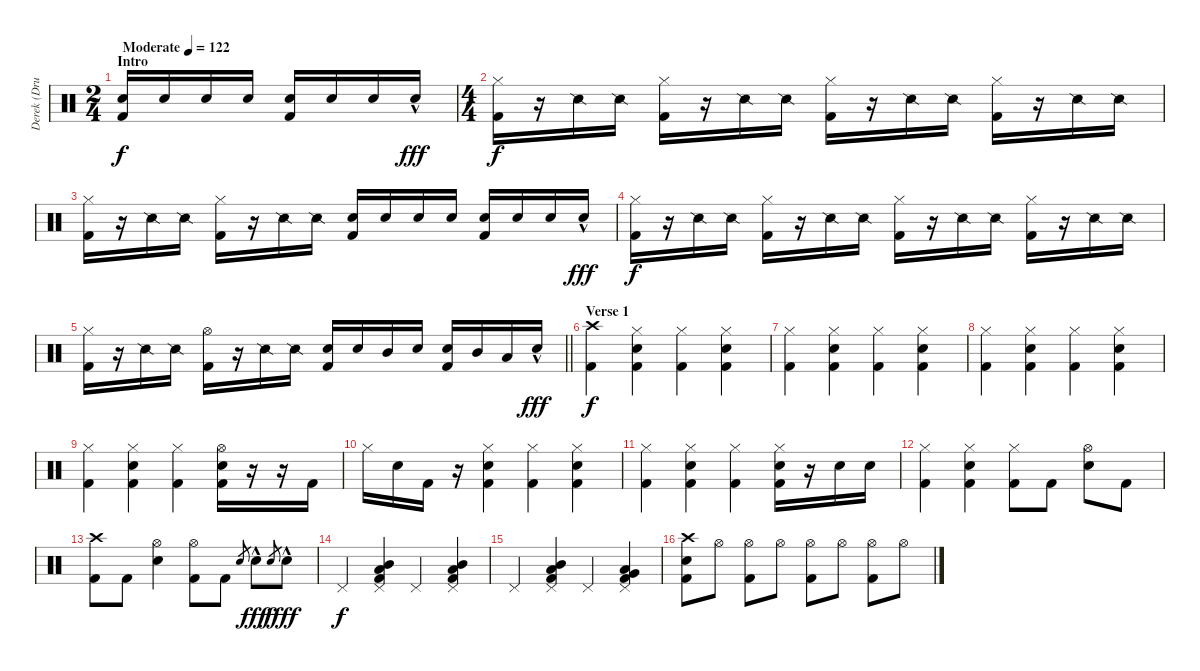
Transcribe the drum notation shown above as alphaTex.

\track ("Derek (Drums)" "Derek (Dru") {instrument percussion}
\staff {score}
\articulation defaults
\ts (2 4)
\section ("" "Intro")
\tempo (122 "Moderate")
\clef neutral
\ks c
("Electric Snare (hit)" "Kick (hit) 2").16{dy f} "Electric Snare (hit)".16 "Electric Snare (hit)".16 "Electric Snare (hit)".16 ("Electric Snare (hit)" "Kick (hit) 2").16 "Electric Snare (hit)".16 "Electric Snare (hit)".16 "Electric Snare (hit)"{hac}.16{dy fff} |
\ts (4 4)
("Hi-Hat (closed)" "Kick (hit) 2").16{dy f} r.16 "Snare (side stick) 2".16 "Snare (side stick) 2".16 ("Hi-Hat (closed)" "Kick (hit) 2").16 r.16 "Snare (side stick) 2".16 "Snare (side stick) 2".16 ("Hi-Hat (closed)" "Kick (hit) 2").16 r.16 "Snare (side stick) 2".16 "Snare (side stick) 2".16 ("Hi-Hat (closed)" "Kick (hit) 2").16 r.16 "Snare (side stick) 2".16 "Snare (side stick) 2".16 |
("Hi-Hat (closed)" "Kick (hit) 2").16 r.16 "Snare (side stick) 2".16 "Snare (side stick) 2".16 ("Hi-Hat (closed)" "Kick (hit) 2").16 r.16 "Snare (side stick) 2".16 "Snare (side stick) 2".16 ("Electric Snare (hit)" "Kick (hit) 2").16 "Electric Snare (hit)".16 "Electric Snare (hit)".16 "Electric Snare (hit)".16 ("Electric Snare (hit)" "Kick (hit) 2").16 "Electric Snare (hit)".16 "Electric Snare (hit)".16 "Electric Snare (hit)"{hac}.16{dy fff} |
("Hi-Hat (closed)" "Kick (hit) 2").16{dy f} r.16 "Snare (side stick) 2".16 "Snare (side stick) 2".16 ("Hi-Hat (closed)" "Kick (hit) 2").16 r.16 "Snare (side stick) 2".16 "Snare (side stick) 2".16 ("Hi-Hat (closed)" "Kick (hit) 2").16 r.16 "Snare (side stick) 2".16 "Snare (side stick) 2".16 ("Hi-Hat (closed)" "Kick (hit) 2").16 r.16 "Snare (side stick) 2".16 "Snare (side stick) 2".16 |
\barLineRight lightlight
("Hi-Hat (closed)" "Kick (hit) 2").16 r.16 "Snare (side stick) 2".16 "Snare (side stick) 2".16 ("Hi-Hat (open)" "Kick (hit) 2").16 r.16 "Snare (side stick) 2".16 "Snare (side stick) 2".16 ("Electric Snare (hit)" "Kick (hit) 2").16 "Electric Snare (hit)".16 "Mid Tom (hit)".16 "Electric Snare (hit)".16 ("Electric Snare (hit)" "Kick (hit) 2").16 "Mid Tom (hit)".16 "Low Tom (hit)".16 "Electric Snare (hit)"{hac}.16{dy fff} |
\section ("" "Verse 1")
("Crash high (hit)" "Kick (hit) 2").4{dy f} ("Hi-Hat (closed)" "Electric Snare (hit)" "Kick (hit) 2").4 ("Hi-Hat (closed)" "Kick (hit) 2").4 ("Hi-Hat (closed)" "Electric Snare (hit)" "Kick (hit) 2").4 |
("Hi-Hat (closed)" "Kick (hit) 2").4 ("Hi-Hat (closed)" "Electric Snare (hit)" "Kick (hit) 2").4 ("Hi-Hat (closed)" "Kick (hit) 2").4 ("Hi-Hat (closed)" "Electric Snare (hit)" "Kick (hit) 2").4 |
("Hi-Hat (closed)" "Kick (hit) 2").4 ("Hi-Hat (closed)" "Electric Snare (hit)" "Kick (hit) 2").4 ("Hi-Hat (closed)" "Kick (hit) 2").4 ("Hi-Hat (closed)" "Electric Snare (hit)" "Kick (hit) 2").4 |
("Hi-Hat (closed)" "Kick (hit) 2").4 ("Hi-Hat (closed)" "Electric Snare (hit)" "Kick (hit) 2").4 ("Hi-Hat (closed)" "Kick (hit) 2").4 ("Hi-Hat (open)" "Electric Snare (hit)" "Kick (hit) 2").16 r.16 r.16 "Kick (hit) 2".16 |
"Hi-Hat (closed)".16 "Snare (hit) 2".16 "Kick (hit) 2".16 r.16 ("Hi-Hat (closed)" "Electric Snare (hit)" "Kick (hit) 2").4 ("Hi-Hat (closed)" "Kick (hit) 2").4 ("Hi-Hat (closed)" "Electric Snare (hit)" "Kick (hit) 2").4 |
("Hi-Hat (closed)" "Kick (hit) 2").4 ("Hi-Hat (closed)" "Electric Snare (hit)" "Kick (hit) 2").4 ("Hi-Hat (closed)" "Kick (hit) 2").4 ("Hi-Hat (closed)" "Electric Snare (hit)" "Kick (hit) 2").16 r.16 "Electric Snare (hit)".16 "Electric Snare (hit)".16 |
("Hi-Hat (closed)" "Kick (hit) 2").4 ("Hi-Hat (closed)" "Electric Snare (hit)" "Kick (hit) 2").4 ("Hi-Hat (closed)" "Kick (hit) 2").8 "Kick (hit) 2".8 ("Hi-Hat (open)" "Electric Snare (hit)").8 "Kick (hit) 2".8 |
("Crash high (hit)" "Kick (hit) 2").8 "Kick (hit) 2".8 ("Hi-Hat (open)" "Electric Snare (hit)").4 ("Hi-Hat (open)" "Kick (hit) 2").8 "Kick (hit) 2".8 "Electric Snare (hit)".8{gr} "Electric Snare (hit)"{hac}.8{dy fff} "Electric Snare (hit)".8{gr dy f} "Electric Snare (hit)"{hac}.8{dy fff} |
"Pedal Hi-Hat (hit)".4{dy f} ("Mid Tom (hit)" "Low Tom (hit)" "Pedal Hi-Hat (hit)" "Kick (hit) 2").4 "Pedal Hi-Hat (hit)".4 ("Mid Tom (hit)" "Low Tom (hit)" "Pedal Hi-Hat (hit)" "Kick (hit) 2").4 |
"Pedal Hi-Hat (hit)".4 ("Mid Tom (hit)" "Low Tom (hit)" "Pedal Hi-Hat (hit)" "Kick (hit) 2").4 "Pedal Hi-Hat (hit)".4 ("Low Tom (hit)" "Very Low Tom (hit)" "Pedal Hi-Hat (hit)" "Kick (hit) 2").4 |
("Crash high (hit)" "Electric Snare (hit)" "Kick (hit) 2").8 "Hi-Hat (open)".8 ("Hi-Hat (open)" "Kick (hit) 2").8 "Hi-Hat (open)".8 ("Hi-Hat (open)" "Kick (hit) 2").8 "Hi-Hat (open)".8 ("Hi-Hat (open)" "Kick (hit) 2").8 "Hi-Hat (open)".8
